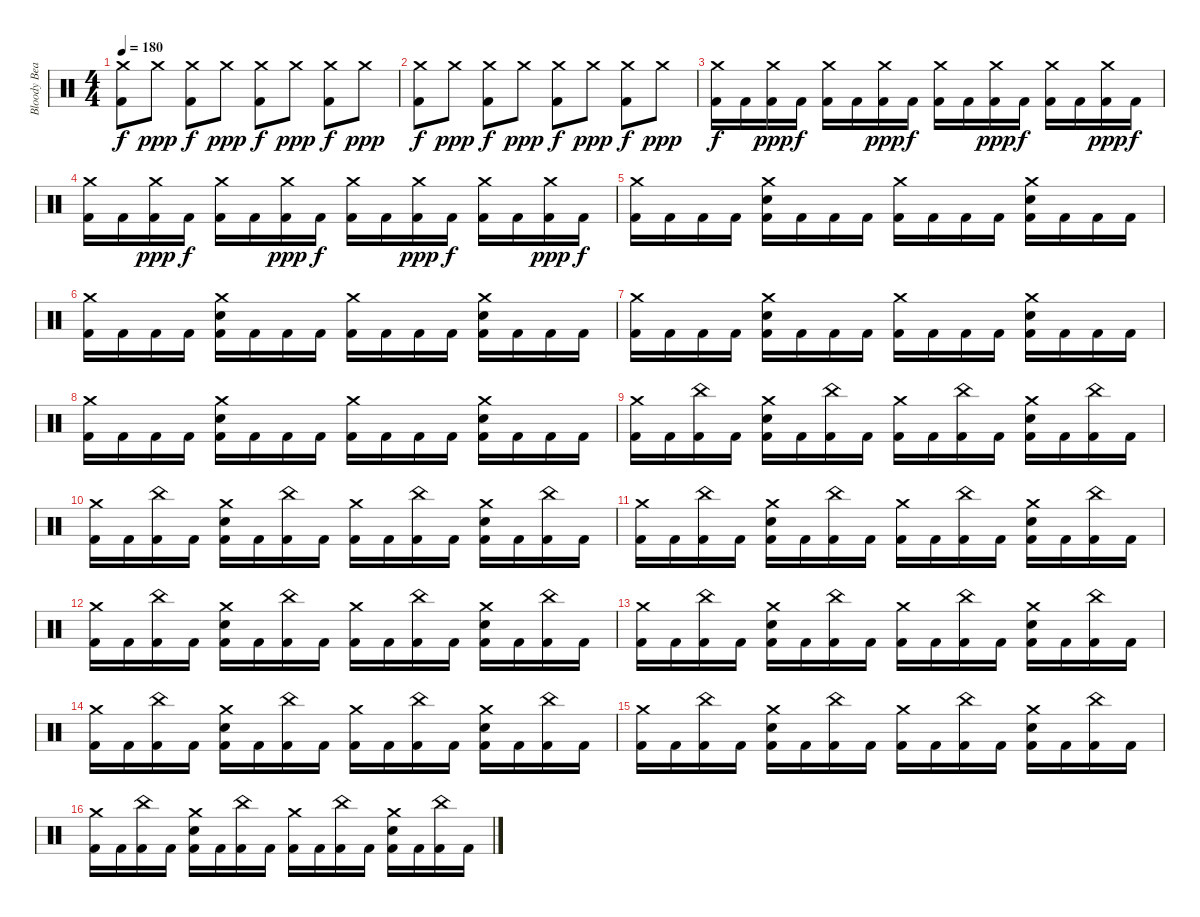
\track ("Bloody Beater" "Bloody Bea") {instrument percussion}
\staff {score}
\articulation defaults
\ts (4 4)
\tempo 180
\clef neutral
\ks c
("Crash medium (hit)" "Kick (hit) 2").8{dy f} "Crash medium (hit)".8{dy ppp} ("Crash medium (hit)" "Kick (hit) 2").8{dy f} "Crash medium (hit)".8{dy ppp} ("Crash medium (hit)" "Kick (hit) 2").8{dy f} "Crash medium (hit)".8{dy ppp} ("Crash medium (hit)" "Kick (hit) 2").8{dy f} "Crash medium (hit)".8{dy ppp} |
("Crash medium (hit)" "Kick (hit) 2").8{dy f} "Crash medium (hit)".8{dy ppp} ("Crash medium (hit)" "Kick (hit) 2").8{dy f} "Crash medium (hit)".8{dy ppp} ("Crash medium (hit)" "Kick (hit) 2").8{dy f} "Crash medium (hit)".8{dy ppp} ("Crash medium (hit)" "Kick (hit) 2").8{dy f} "Crash medium (hit)".8{dy ppp} |
("Crash medium (hit)" "Kick (hit) 2").16{dy f} "Kick (hit) 2".16 ("Crash medium (hit)" "Kick (hit) 2").16{dy ppp} "Kick (hit) 2".16{dy f} ("Crash medium (hit)" "Kick (hit) 2").16 "Kick (hit) 2".16 ("Crash medium (hit)" "Kick (hit) 2").16{dy ppp} "Kick (hit) 2".16{dy f} ("Crash medium (hit)" "Kick (hit) 2").16 "Kick (hit) 2".16 ("Crash medium (hit)" "Kick (hit) 2").16{dy ppp} "Kick (hit) 2".16{dy f} ("Crash medium (hit)" "Kick (hit) 2").16 "Kick (hit) 2".16 ("Crash medium (hit)" "Kick (hit) 2").16{dy ppp} "Kick (hit) 2".16{dy f} |
("Crash medium (hit)" "Kick (hit) 2").16 "Kick (hit) 2".16 ("Crash medium (hit)" "Kick (hit) 2").16{dy ppp} "Kick (hit) 2".16{dy f} ("Crash medium (hit)" "Kick (hit) 2").16 "Kick (hit) 2".16 ("Crash medium (hit)" "Kick (hit) 2").16{dy ppp} "Kick (hit) 2".16{dy f} ("Crash medium (hit)" "Kick (hit) 2").16 "Kick (hit) 2".16 ("Crash medium (hit)" "Kick (hit) 2").16{dy ppp} "Kick (hit) 2".16{dy f} ("Crash medium (hit)" "Kick (hit) 2").16 "Kick (hit) 2".16 ("Crash medium (hit)" "Kick (hit) 2").16{dy ppp} "Kick (hit) 2".16{dy f} |
("Crash medium (hit)" "Kick (hit) 2").16 "Kick (hit) 2".16 "Kick (hit) 2".16 "Kick (hit) 2".16 ("Crash medium (hit)" "Snare (hit) 2" "Kick (hit) 2").16 "Kick (hit) 2".16 "Kick (hit) 2".16 "Kick (hit) 2".16 ("Crash medium (hit)" "Kick (hit) 2").16 "Kick (hit) 2".16 "Kick (hit) 2".16 "Kick (hit) 2".16 ("Crash medium (hit)" "Snare (hit) 2" "Kick (hit) 2").16 "Kick (hit) 2".16 "Kick (hit) 2".16 "Kick (hit) 2".16 |
("Crash medium (hit)" "Kick (hit) 2").16 "Kick (hit) 2".16 "Kick (hit) 2".16 "Kick (hit) 2".16 ("Crash medium (hit)" "Snare (hit) 2" "Kick (hit) 2").16 "Kick (hit) 2".16 "Kick (hit) 2".16 "Kick (hit) 2".16 ("Crash medium (hit)" "Kick (hit) 2").16 "Kick (hit) 2".16 "Kick (hit) 2".16 "Kick (hit) 2".16 ("Crash medium (hit)" "Snare (hit) 2" "Kick (hit) 2").16 "Kick (hit) 2".16 "Kick (hit) 2".16 "Kick (hit) 2".16 |
("Crash medium (hit)" "Kick (hit) 2").16 "Kick (hit) 2".16 "Kick (hit) 2".16 "Kick (hit) 2".16 ("Crash medium (hit)" "Snare (hit) 2" "Kick (hit) 2").16 "Kick (hit) 2".16 "Kick (hit) 2".16 "Kick (hit) 2".16 ("Crash medium (hit)" "Kick (hit) 2").16 "Kick (hit) 2".16 "Kick (hit) 2".16 "Kick (hit) 2".16 ("Crash medium (hit)" "Snare (hit) 2" "Kick (hit) 2").16 "Kick (hit) 2".16 "Kick (hit) 2".16 "Kick (hit) 2".16 |
("Crash medium (hit)" "Kick (hit) 2").16 "Kick (hit) 2".16 "Kick (hit) 2".16 "Kick (hit) 2".16 ("Crash medium (hit)" "Snare (hit) 2" "Kick (hit) 2").16 "Kick (hit) 2".16 "Kick (hit) 2".16 "Kick (hit) 2".16 ("Crash medium (hit)" "Kick (hit) 2").16 "Kick (hit) 2".16 "Kick (hit) 2".16 "Kick (hit) 2".16 ("Crash medium (hit)" "Snare (hit) 2" "Kick (hit) 2").16 "Kick (hit) 2".16 "Kick (hit) 2".16 "Kick (hit) 2".16 |
("Crash medium (hit)" "Kick (hit) 2").16 "Kick (hit) 2".16 ("China (hit)" "Kick (hit) 2").16 "Kick (hit) 2".16 ("Crash medium (hit)" "Snare (hit) 2" "Kick (hit) 2").16 "Kick (hit) 2".16 ("China (hit)" "Kick (hit) 2").16 "Kick (hit) 2".16 ("Crash medium (hit)" "Kick (hit) 2").16 "Kick (hit) 2".16 ("China (hit)" "Kick (hit) 2").16 "Kick (hit) 2".16 ("Crash medium (hit)" "Snare (hit) 2" "Kick (hit) 2").16 "Kick (hit) 2".16 ("China (hit)" "Kick (hit) 2").16 "Kick (hit) 2".16 |
("Crash medium (hit)" "Kick (hit) 2").16 "Kick (hit) 2".16 ("China (hit)" "Kick (hit) 2").16 "Kick (hit) 2".16 ("Crash medium (hit)" "Snare (hit) 2" "Kick (hit) 2").16 "Kick (hit) 2".16 ("China (hit)" "Kick (hit) 2").16 "Kick (hit) 2".16 ("Crash medium (hit)" "Kick (hit) 2").16 "Kick (hit) 2".16 ("China (hit)" "Kick (hit) 2").16 "Kick (hit) 2".16 ("Crash medium (hit)" "Snare (hit) 2" "Kick (hit) 2").16 "Kick (hit) 2".16 ("China (hit)" "Kick (hit) 2").16 "Kick (hit) 2".16 |
("Crash medium (hit)" "Kick (hit) 2").16 "Kick (hit) 2".16 ("China (hit)" "Kick (hit) 2").16 "Kick (hit) 2".16 ("Crash medium (hit)" "Snare (hit) 2" "Kick (hit) 2").16 "Kick (hit) 2".16 ("China (hit)" "Kick (hit) 2").16 "Kick (hit) 2".16 ("Crash medium (hit)" "Kick (hit) 2").16 "Kick (hit) 2".16 ("China (hit)" "Kick (hit) 2").16 "Kick (hit) 2".16 ("Crash medium (hit)" "Snare (hit) 2" "Kick (hit) 2").16 "Kick (hit) 2".16 ("China (hit)" "Kick (hit) 2").16 "Kick (hit) 2".16 |
("Crash medium (hit)" "Kick (hit) 2").16 "Kick (hit) 2".16 ("China (hit)" "Kick (hit) 2").16 "Kick (hit) 2".16 ("Crash medium (hit)" "Snare (hit) 2" "Kick (hit) 2").16 "Kick (hit) 2".16 ("China (hit)" "Kick (hit) 2").16 "Kick (hit) 2".16 ("Crash medium (hit)" "Kick (hit) 2").16 "Kick (hit) 2".16 ("China (hit)" "Kick (hit) 2").16 "Kick (hit) 2".16 ("Crash medium (hit)" "Snare (hit) 2" "Kick (hit) 2").16 "Kick (hit) 2".16 ("China (hit)" "Kick (hit) 2").16 "Kick (hit) 2".16 |
("Crash medium (hit)" "Kick (hit) 2").16 "Kick (hit) 2".16 ("China (hit)" "Kick (hit) 2").16 "Kick (hit) 2".16 ("Crash medium (hit)" "Snare (hit) 2" "Kick (hit) 2").16 "Kick (hit) 2".16 ("China (hit)" "Kick (hit) 2").16 "Kick (hit) 2".16 ("Crash medium (hit)" "Kick (hit) 2").16 "Kick (hit) 2".16 ("China (hit)" "Kick (hit) 2").16 "Kick (hit) 2".16 ("Crash medium (hit)" "Snare (hit) 2" "Kick (hit) 2").16 "Kick (hit) 2".16 ("China (hit)" "Kick (hit) 2").16 "Kick (hit) 2".16 |
("Crash medium (hit)" "Kick (hit) 2").16 "Kick (hit) 2".16 ("China (hit)" "Kick (hit) 2").16 "Kick (hit) 2".16 ("Crash medium (hit)" "Snare (hit) 2" "Kick (hit) 2").16 "Kick (hit) 2".16 ("China (hit)" "Kick (hit) 2").16 "Kick (hit) 2".16 ("Crash medium (hit)" "Kick (hit) 2").16 "Kick (hit) 2".16 ("China (hit)" "Kick (hit) 2").16 "Kick (hit) 2".16 ("Crash medium (hit)" "Snare (hit) 2" "Kick (hit) 2").16 "Kick (hit) 2".16 ("China (hit)" "Kick (hit) 2").16 "Kick (hit) 2".16 |
("Crash medium (hit)" "Kick (hit) 2").16 "Kick (hit) 2".16 ("China (hit)" "Kick (hit) 2").16 "Kick (hit) 2".16 ("Crash medium (hit)" "Snare (hit) 2" "Kick (hit) 2").16 "Kick (hit) 2".16 ("China (hit)" "Kick (hit) 2").16 "Kick (hit) 2".16 ("Crash medium (hit)" "Kick (hit) 2").16 "Kick (hit) 2".16 ("China (hit)" "Kick (hit) 2").16 "Kick (hit) 2".16 ("Crash medium (hit)" "Snare (hit) 2" "Kick (hit) 2").16 "Kick (hit) 2".16 ("China (hit)" "Kick (hit) 2").16 "Kick (hit) 2".16 |
("Crash medium (hit)" "Kick (hit) 2").16 "Kick (hit) 2".16 ("China (hit)" "Kick (hit) 2").16 "Kick (hit) 2".16 ("Crash medium (hit)" "Snare (hit) 2" "Kick (hit) 2").16 "Kick (hit) 2".16 ("China (hit)" "Kick (hit) 2").16 "Kick (hit) 2".16 ("Crash medium (hit)" "Kick (hit) 2").16 "Kick (hit) 2".16 ("China (hit)" "Kick (hit) 2").16 "Kick (hit) 2".16 ("Crash medium (hit)" "Snare (hit) 2" "Kick (hit) 2").16 "Kick (hit) 2".16 ("China (hit)" "Kick (hit) 2").16 "Kick (hit) 2".16
